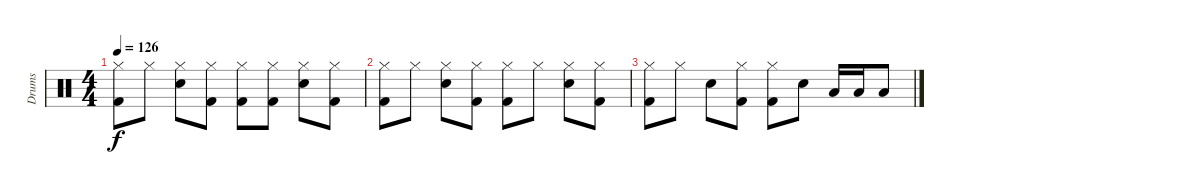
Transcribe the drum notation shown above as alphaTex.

\track ("Drums" "Drums") {instrument percussion}
\staff {score}
\articulation defaults
\ts (4 4)
\tempo 126
\clef neutral
\ks c
("Hi-Hat (closed)" "Kick (hit) 2").8{dy f} "Hi-Hat (closed)".8 ("Hi-Hat (closed)" "Snare (hit) 2").8 ("Hi-Hat (closed)" "Kick (hit) 2").8 ("Hi-Hat (closed)" "Kick (hit) 2").8 ("Hi-Hat (closed)" "Kick (hit) 2").8 ("Hi-Hat (closed)" "Snare (hit) 2").8 ("Hi-Hat (closed)" "Kick (hit) 2").8 |
("Hi-Hat (closed)" "Kick (hit) 2").8 "Hi-Hat (closed)".8 ("Hi-Hat (closed)" "Snare (hit) 2").8 ("Hi-Hat (closed)" "Kick (hit) 2").8 ("Hi-Hat (closed)" "Kick (hit) 2").8 "Hi-Hat (closed)".8 ("Hi-Hat (closed)" "Snare (hit) 2").8 ("Hi-Hat (closed)" "Kick (hit) 2").8 |
("Hi-Hat (closed)" "Kick (hit) 2").8 "Hi-Hat (closed)".8 "Snare (hit) 2".8 ("Hi-Hat (closed)" "Kick (hit) 2").8 ("Hi-Hat (closed)" "Kick (hit) 2").8 "Snare (hit) 2".8 "Low Tom (hit)".16 "Low Tom (hit)".16 "Low Tom (hit)".8
